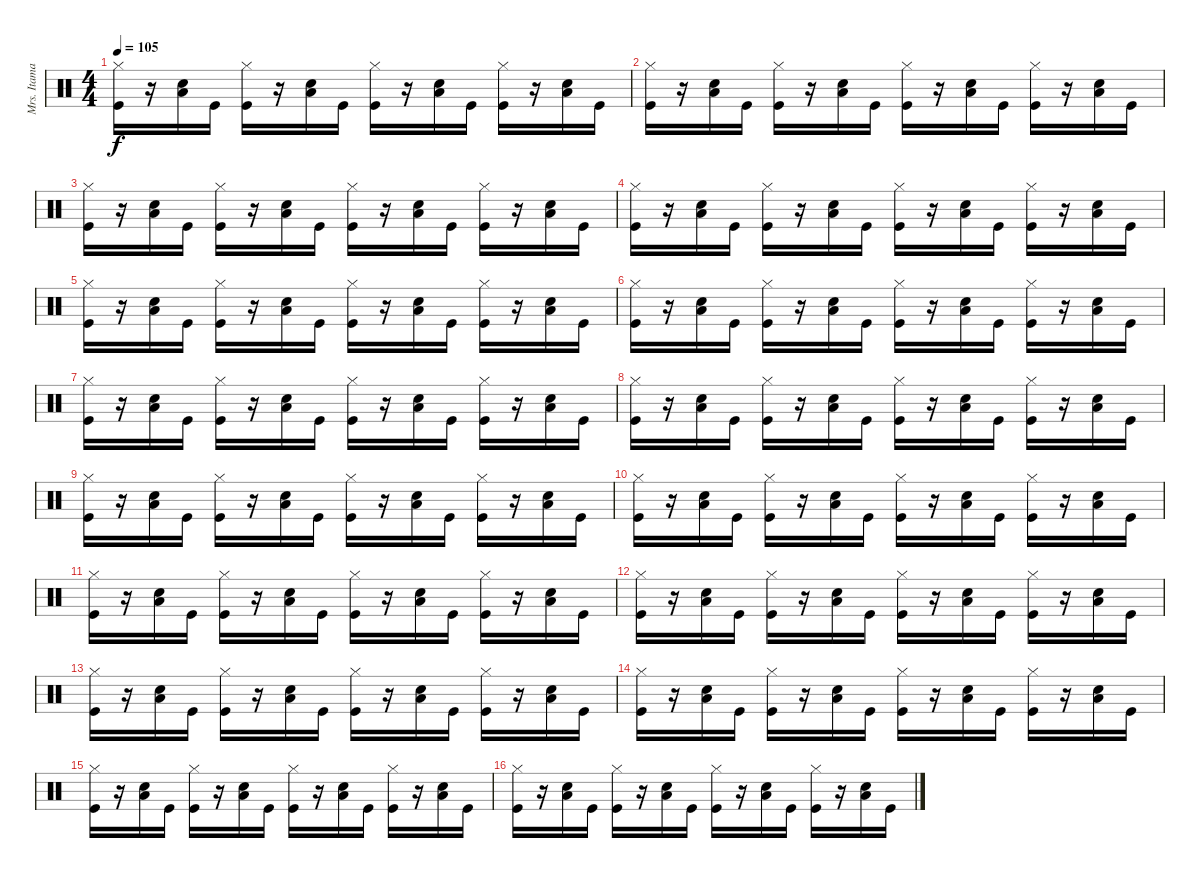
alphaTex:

\track ("Mrs. Itamar" "Mrs. Itama") {instrument percussion}
\staff {score}
\articulation defaults
\ts (4 4)
\tempo 105
\clef neutral
\ks c
("Kick (hit)" "Hi-Hat (closed)").16{dy f} r.16 ("Electric Snare (hit)" "Low Tom (hit)").16 "Kick (hit)".16 ("Kick (hit)" "Hi-Hat (closed)").16 r.16 ("Electric Snare (hit)" "Low Tom (hit)").16 "Kick (hit)".16 ("Kick (hit)" "Hi-Hat (closed)").16 r.16 ("Electric Snare (hit)" "Low Tom (hit)").16 "Kick (hit)".16 ("Kick (hit)" "Hi-Hat (closed)").16 r.16 ("Electric Snare (hit)" "Low Tom (hit)").16 "Kick (hit)".16 |
("Kick (hit)" "Hi-Hat (closed)").16 r.16 ("Electric Snare (hit)" "Low Tom (hit)").16 "Kick (hit)".16 ("Kick (hit)" "Hi-Hat (closed)").16 r.16 ("Electric Snare (hit)" "Low Tom (hit)").16 "Kick (hit)".16 ("Kick (hit)" "Hi-Hat (closed)").16 r.16 ("Electric Snare (hit)" "Low Tom (hit)").16 "Kick (hit)".16 ("Kick (hit)" "Hi-Hat (closed)").16 r.16 ("Electric Snare (hit)" "Low Tom (hit)").16 "Kick (hit)".16 |
("Kick (hit)" "Hi-Hat (closed)").16 r.16 ("Electric Snare (hit)" "Low Tom (hit)").16 "Kick (hit)".16 ("Kick (hit)" "Hi-Hat (closed)").16 r.16 ("Electric Snare (hit)" "Low Tom (hit)").16 "Kick (hit)".16 ("Kick (hit)" "Hi-Hat (closed)").16 r.16 ("Electric Snare (hit)" "Low Tom (hit)").16 "Kick (hit)".16 ("Kick (hit)" "Hi-Hat (closed)").16 r.16 ("Electric Snare (hit)" "Low Tom (hit)").16 "Kick (hit)".16 |
("Kick (hit)" "Hi-Hat (closed)").16 r.16 ("Electric Snare (hit)" "Low Tom (hit)").16 "Kick (hit)".16 ("Kick (hit)" "Hi-Hat (closed)").16 r.16 ("Electric Snare (hit)" "Low Tom (hit)").16 "Kick (hit)".16 ("Kick (hit)" "Hi-Hat (closed)").16 r.16 ("Electric Snare (hit)" "Low Tom (hit)").16 "Kick (hit)".16 ("Kick (hit)" "Hi-Hat (closed)").16 r.16 ("Electric Snare (hit)" "Low Tom (hit)").16 "Kick (hit)".16 |
("Kick (hit)" "Hi-Hat (closed)").16 r.16 ("Electric Snare (hit)" "Low Tom (hit)").16 "Kick (hit)".16 ("Kick (hit)" "Hi-Hat (closed)").16 r.16 ("Electric Snare (hit)" "Low Tom (hit)").16 "Kick (hit)".16 ("Kick (hit)" "Hi-Hat (closed)").16 r.16 ("Electric Snare (hit)" "Low Tom (hit)").16 "Kick (hit)".16 ("Kick (hit)" "Hi-Hat (closed)").16 r.16 ("Electric Snare (hit)" "Low Tom (hit)").16 "Kick (hit)".16 |
("Kick (hit)" "Hi-Hat (closed)").16 r.16 ("Electric Snare (hit)" "Low Tom (hit)").16 "Kick (hit)".16 ("Kick (hit)" "Hi-Hat (closed)").16 r.16 ("Electric Snare (hit)" "Low Tom (hit)").16 "Kick (hit)".16 ("Kick (hit)" "Hi-Hat (closed)").16 r.16 ("Electric Snare (hit)" "Low Tom (hit)").16 "Kick (hit)".16 ("Kick (hit)" "Hi-Hat (closed)").16 r.16 ("Electric Snare (hit)" "Low Tom (hit)").16 "Kick (hit)".16 |
("Kick (hit)" "Hi-Hat (closed)").16 r.16 ("Electric Snare (hit)" "Low Tom (hit)").16 "Kick (hit)".16 ("Kick (hit)" "Hi-Hat (closed)").16 r.16 ("Electric Snare (hit)" "Low Tom (hit)").16 "Kick (hit)".16 ("Kick (hit)" "Hi-Hat (closed)").16 r.16 ("Electric Snare (hit)" "Low Tom (hit)").16 "Kick (hit)".16 ("Kick (hit)" "Hi-Hat (closed)").16 r.16 ("Electric Snare (hit)" "Low Tom (hit)").16 "Kick (hit)".16 |
("Kick (hit)" "Hi-Hat (closed)").16 r.16 ("Electric Snare (hit)" "Low Tom (hit)").16 "Kick (hit)".16 ("Kick (hit)" "Hi-Hat (closed)").16 r.16 ("Electric Snare (hit)" "Low Tom (hit)").16 "Kick (hit)".16 ("Kick (hit)" "Hi-Hat (closed)").16 r.16 ("Electric Snare (hit)" "Low Tom (hit)").16 "Kick (hit)".16 ("Kick (hit)" "Hi-Hat (closed)").16 r.16 ("Electric Snare (hit)" "Low Tom (hit)").16 "Kick (hit)".16 |
("Kick (hit)" "Hi-Hat (closed)").16 r.16 ("Electric Snare (hit)" "Low Tom (hit)").16 "Kick (hit)".16 ("Kick (hit)" "Hi-Hat (closed)").16 r.16 ("Electric Snare (hit)" "Low Tom (hit)").16 "Kick (hit)".16 ("Kick (hit)" "Hi-Hat (closed)").16 r.16 ("Electric Snare (hit)" "Low Tom (hit)").16 "Kick (hit)".16 ("Kick (hit)" "Hi-Hat (closed)").16 r.16 ("Electric Snare (hit)" "Low Tom (hit)").16 "Kick (hit)".16 |
("Kick (hit)" "Hi-Hat (closed)").16 r.16 ("Electric Snare (hit)" "Low Tom (hit)").16 "Kick (hit)".16 ("Kick (hit)" "Hi-Hat (closed)").16 r.16 ("Electric Snare (hit)" "Low Tom (hit)").16 "Kick (hit)".16 ("Kick (hit)" "Hi-Hat (closed)").16 r.16 ("Electric Snare (hit)" "Low Tom (hit)").16 "Kick (hit)".16 ("Kick (hit)" "Hi-Hat (closed)").16 r.16 ("Electric Snare (hit)" "Low Tom (hit)").16 "Kick (hit)".16 |
("Kick (hit)" "Hi-Hat (closed)").16 r.16 ("Electric Snare (hit)" "Low Tom (hit)").16 "Kick (hit)".16 ("Kick (hit)" "Hi-Hat (closed)").16 r.16 ("Electric Snare (hit)" "Low Tom (hit)").16 "Kick (hit)".16 ("Kick (hit)" "Hi-Hat (closed)").16 r.16 ("Electric Snare (hit)" "Low Tom (hit)").16 "Kick (hit)".16 ("Kick (hit)" "Hi-Hat (closed)").16 r.16 ("Electric Snare (hit)" "Low Tom (hit)").16 "Kick (hit)".16 |
("Kick (hit)" "Hi-Hat (closed)").16 r.16 ("Electric Snare (hit)" "Low Tom (hit)").16 "Kick (hit)".16 ("Kick (hit)" "Hi-Hat (closed)").16 r.16 ("Electric Snare (hit)" "Low Tom (hit)").16 "Kick (hit)".16 ("Kick (hit)" "Hi-Hat (closed)").16 r.16 ("Electric Snare (hit)" "Low Tom (hit)").16 "Kick (hit)".16 ("Kick (hit)" "Hi-Hat (closed)").16 r.16 ("Electric Snare (hit)" "Low Tom (hit)").16 "Kick (hit)".16 |
("Kick (hit)" "Hi-Hat (closed)").16 r.16 ("Electric Snare (hit)" "Low Tom (hit)").16 "Kick (hit)".16 ("Kick (hit)" "Hi-Hat (closed)").16 r.16 ("Electric Snare (hit)" "Low Tom (hit)").16 "Kick (hit)".16 ("Kick (hit)" "Hi-Hat (closed)").16 r.16 ("Electric Snare (hit)" "Low Tom (hit)").16 "Kick (hit)".16 ("Kick (hit)" "Hi-Hat (closed)").16 r.16 ("Electric Snare (hit)" "Low Tom (hit)").16 "Kick (hit)".16 |
("Kick (hit)" "Hi-Hat (closed)").16 r.16 ("Electric Snare (hit)" "Low Tom (hit)").16 "Kick (hit)".16 ("Kick (hit)" "Hi-Hat (closed)").16 r.16 ("Electric Snare (hit)" "Low Tom (hit)").16 "Kick (hit)".16 ("Kick (hit)" "Hi-Hat (closed)").16 r.16 ("Electric Snare (hit)" "Low Tom (hit)").16 "Kick (hit)".16 ("Kick (hit)" "Hi-Hat (closed)").16 r.16 ("Electric Snare (hit)" "Low Tom (hit)").16 "Kick (hit)".16 |
("Kick (hit)" "Hi-Hat (closed)").16 r.16 ("Electric Snare (hit)" "Low Tom (hit)").16 "Kick (hit)".16 ("Kick (hit)" "Hi-Hat (closed)").16 r.16 ("Electric Snare (hit)" "Low Tom (hit)").16 "Kick (hit)".16 ("Kick (hit)" "Hi-Hat (closed)").16 r.16 ("Electric Snare (hit)" "Low Tom (hit)").16 "Kick (hit)".16 ("Kick (hit)" "Hi-Hat (closed)").16 r.16 ("Electric Snare (hit)" "Low Tom (hit)").16 "Kick (hit)".16 |
("Kick (hit)" "Hi-Hat (closed)").16 r.16 ("Electric Snare (hit)" "Low Tom (hit)").16 "Kick (hit)".16 ("Kick (hit)" "Hi-Hat (closed)").16 r.16 ("Electric Snare (hit)" "Low Tom (hit)").16 "Kick (hit)".16 ("Kick (hit)" "Hi-Hat (closed)").16 r.16 ("Electric Snare (hit)" "Low Tom (hit)").16 "Kick (hit)".16 ("Kick (hit)" "Hi-Hat (closed)").16 r.16 ("Electric Snare (hit)" "Low Tom (hit)").16 "Kick (hit)".16
